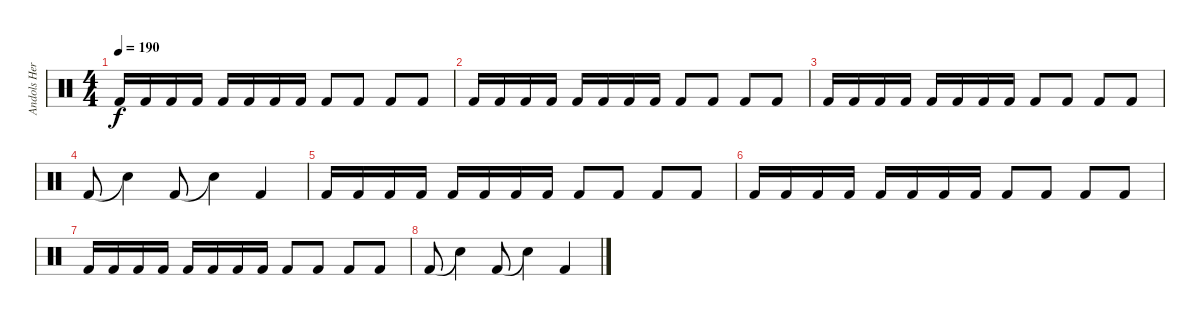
\track ("Andols Herrick [KICK]" "Andols Her") {instrument percussion}
\staff {score}
\articulation defaults
\ts (4 4)
\tempo 190
\clef neutral
\ks c "Kick (hit) 2".16{dy f} "Kick (hit) 2".16 "Kick (hit) 2".16 "Kick (hit) 2".16 "Kick (hit) 2".16 "Kick (hit) 2".16 "Kick (hit) 2".16 "Kick (hit) 2".16 "Kick (hit) 2".8 "Kick (hit) 2".8 "Kick (hit) 2".8 "Kick (hit) 2".8
|
"Kick (hit) 2".16 "Kick (hit) 2".16 "Kick (hit) 2".16 "Kick (hit) 2".16 "Kick (hit) 2".16 "Kick (hit) 2".16 "Kick (hit) 2".16 "Kick (hit) 2".16 "Kick (hit) 2".8 "Kick (hit) 2".8 "Kick (hit) 2".8 "Kick (hit) 2".8 |
"Kick (hit) 2".16 "Kick (hit) 2".16 "Kick (hit) 2".16 "Kick (hit) 2".16 "Kick (hit) 2".16 "Kick (hit) 2".16 "Kick (hit) 2".16 "Kick (hit) 2".16 "Kick (hit) 2".8 "Kick (hit) 2".8 "Kick (hit) 2".8 "Kick (hit) 2".8 |
"Kick (hit) 2".8 "Snare (hit)"{t}.4 "Kick (hit) 2".8 "Snare (hit)"{t}.4 "Kick (hit) 2".4 |
"Kick (hit) 2".16 "Kick (hit) 2".16 "Kick (hit) 2".16 "Kick (hit) 2".16 "Kick (hit) 2".16 "Kick (hit) 2".16 "Kick (hit) 2".16 "Kick (hit) 2".16 "Kick (hit) 2".8 "Kick (hit) 2".8 "Kick (hit) 2".8 "Kick (hit) 2".8 |
"Kick (hit) 2".16 "Kick (hit) 2".16 "Kick (hit) 2".16 "Kick (hit) 2".16 "Kick (hit) 2".16 "Kick (hit) 2".16 "Kick (hit) 2".16 "Kick (hit) 2".16 "Kick (hit) 2".8 "Kick (hit) 2".8 "Kick (hit) 2".8 "Kick (hit) 2".8 |
"Kick (hit) 2".16 "Kick (hit) 2".16 "Kick (hit) 2".16 "Kick (hit) 2".16 "Kick (hit) 2".16 "Kick (hit) 2".16 "Kick (hit) 2".16 "Kick (hit) 2".16 "Kick (hit) 2".8 "Kick (hit) 2".8 "Kick (hit) 2".8 "Kick (hit) 2".8 |
"Kick (hit) 2".8 "Snare (hit)"{t}.4 "Kick (hit) 2".8 "Snare (hit)"{t}.4 "Kick (hit) 2".4
